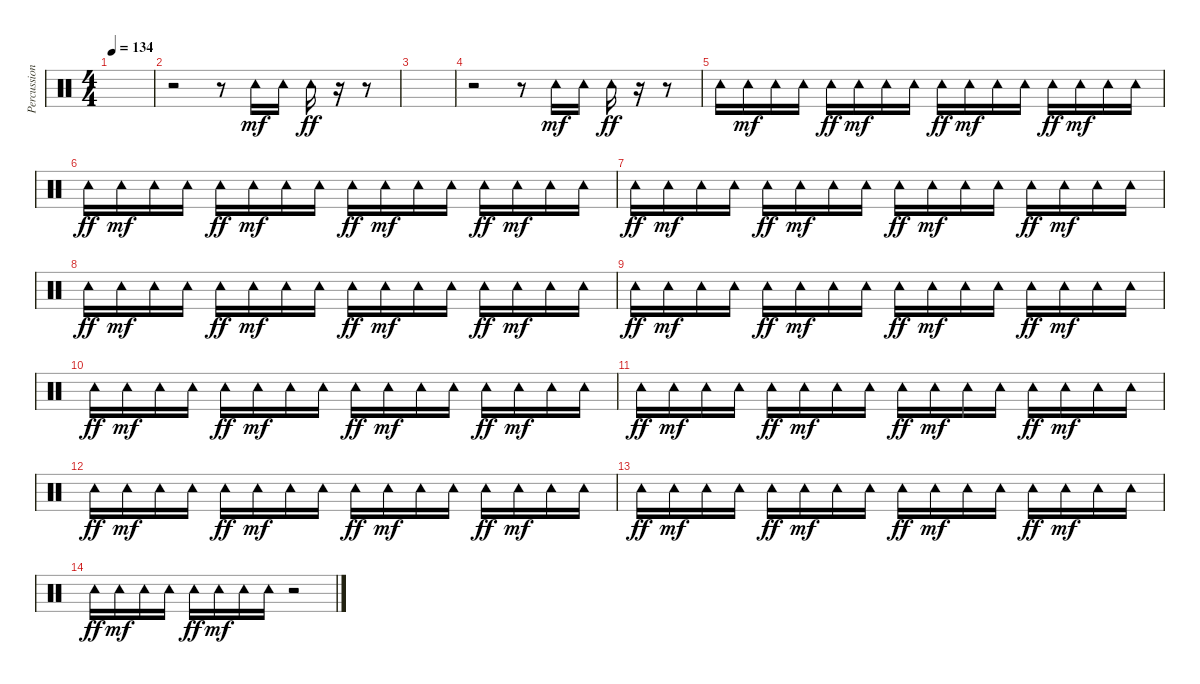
\track ("Percussion" "Percussion") {instrument percussion}
\staff {score}
\articulation defaults
\ts (4 4)
\tempo 134
\clef neutral
\ks c
|
r.2 r.8 "Tambourine (hit)".16{dy mf} "Tambourine (hit)".16 "Tambourine (hit)".16{dy ff} r.16 r.8 |
|
r.2 r.8 "Tambourine (hit)".16{dy mf} "Tambourine (hit)".16 "Tambourine (hit)".16{dy ff} r.16 r.8 |
"Tambourine (hit)".16 "Tambourine (hit)".16{dy mf} "Tambourine (hit)".16 "Tambourine (hit)".16 "Tambourine (hit)".16{dy ff} "Tambourine (hit)".16{dy mf} "Tambourine (hit)".16 "Tambourine (hit)".16 "Tambourine (hit)".16{dy ff} "Tambourine (hit)".16{dy mf} "Tambourine (hit)".16 "Tambourine (hit)".16 "Tambourine (hit)".16{dy ff} "Tambourine (hit)".16{dy mf} "Tambourine (hit)".16 "Tambourine (hit)".16 |
"Tambourine (hit)".16{dy ff} "Tambourine (hit)".16{dy mf} "Tambourine (hit)".16 "Tambourine (hit)".16 "Tambourine (hit)".16{dy ff} "Tambourine (hit)".16{dy mf} "Tambourine (hit)".16 "Tambourine (hit)".16 "Tambourine (hit)".16{dy ff} "Tambourine (hit)".16{dy mf} "Tambourine (hit)".16 "Tambourine (hit)".16 "Tambourine (hit)".16{dy ff} "Tambourine (hit)".16{dy mf} "Tambourine (hit)".16 "Tambourine (hit)".16 |
"Tambourine (hit)".16{dy ff} "Tambourine (hit)".16{dy mf} "Tambourine (hit)".16 "Tambourine (hit)".16 "Tambourine (hit)".16{dy ff} "Tambourine (hit)".16{dy mf} "Tambourine (hit)".16 "Tambourine (hit)".16 "Tambourine (hit)".16{dy ff} "Tambourine (hit)".16{dy mf} "Tambourine (hit)".16 "Tambourine (hit)".16 "Tambourine (hit)".16{dy ff} "Tambourine (hit)".16{dy mf} "Tambourine (hit)".16 "Tambourine (hit)".16 |
"Tambourine (hit)".16{dy ff} "Tambourine (hit)".16{dy mf} "Tambourine (hit)".16 "Tambourine (hit)".16 "Tambourine (hit)".16{dy ff} "Tambourine (hit)".16{dy mf} "Tambourine (hit)".16 "Tambourine (hit)".16 "Tambourine (hit)".16{dy ff} "Tambourine (hit)".16{dy mf} "Tambourine (hit)".16 "Tambourine (hit)".16 "Tambourine (hit)".16{dy ff} "Tambourine (hit)".16{dy mf} "Tambourine (hit)".16 "Tambourine (hit)".16 |
"Tambourine (hit)".16{dy ff} "Tambourine (hit)".16{dy mf} "Tambourine (hit)".16 "Tambourine (hit)".16 "Tambourine (hit)".16{dy ff} "Tambourine (hit)".16{dy mf} "Tambourine (hit)".16 "Tambourine (hit)".16 "Tambourine (hit)".16{dy ff} "Tambourine (hit)".16{dy mf} "Tambourine (hit)".16 "Tambourine (hit)".16 "Tambourine (hit)".16{dy ff} "Tambourine (hit)".16{dy mf} "Tambourine (hit)".16 "Tambourine (hit)".16 |
"Tambourine (hit)".16{dy ff} "Tambourine (hit)".16{dy mf} "Tambourine (hit)".16 "Tambourine (hit)".16 "Tambourine (hit)".16{dy ff} "Tambourine (hit)".16{dy mf} "Tambourine (hit)".16 "Tambourine (hit)".16 "Tambourine (hit)".16{dy ff} "Tambourine (hit)".16{dy mf} "Tambourine (hit)".16 "Tambourine (hit)".16 "Tambourine (hit)".16{dy ff} "Tambourine (hit)".16{dy mf} "Tambourine (hit)".16 "Tambourine (hit)".16 |
"Tambourine (hit)".16{dy ff} "Tambourine (hit)".16{dy mf} "Tambourine (hit)".16 "Tambourine (hit)".16 "Tambourine (hit)".16{dy ff} "Tambourine (hit)".16{dy mf} "Tambourine (hit)".16 "Tambourine (hit)".16 "Tambourine (hit)".16{dy ff} "Tambourine (hit)".16{dy mf} "Tambourine (hit)".16 "Tambourine (hit)".16 "Tambourine (hit)".16{dy ff} "Tambourine (hit)".16{dy mf} "Tambourine (hit)".16 "Tambourine (hit)".16 |
"Tambourine (hit)".16{dy ff} "Tambourine (hit)".16{dy mf} "Tambourine (hit)".16 "Tambourine (hit)".16 "Tambourine (hit)".16{dy ff} "Tambourine (hit)".16{dy mf} "Tambourine (hit)".16 "Tambourine (hit)".16 "Tambourine (hit)".16{dy ff} "Tambourine (hit)".16{dy mf} "Tambourine (hit)".16 "Tambourine (hit)".16 "Tambourine (hit)".16{dy ff} "Tambourine (hit)".16{dy mf} "Tambourine (hit)".16 "Tambourine (hit)".16 |
"Tambourine (hit)".16{dy ff} "Tambourine (hit)".16{dy mf} "Tambourine (hit)".16 "Tambourine (hit)".16 "Tambourine (hit)".16{dy ff} "Tambourine (hit)".16{dy mf} "Tambourine (hit)".16 "Tambourine (hit)".16 "Tambourine (hit)".16{dy ff} "Tambourine (hit)".16{dy mf} "Tambourine (hit)".16 "Tambourine (hit)".16 "Tambourine (hit)".16{dy ff} "Tambourine (hit)".16{dy mf} "Tambourine (hit)".16 "Tambourine (hit)".16 |
"Tambourine (hit)".16{dy ff} "Tambourine (hit)".16{dy mf} "Tambourine (hit)".16 "Tambourine (hit)".16 "Tambourine (hit)".16{dy ff} "Tambourine (hit)".16{dy mf} "Tambourine (hit)".16 "Tambourine (hit)".16 r.2
